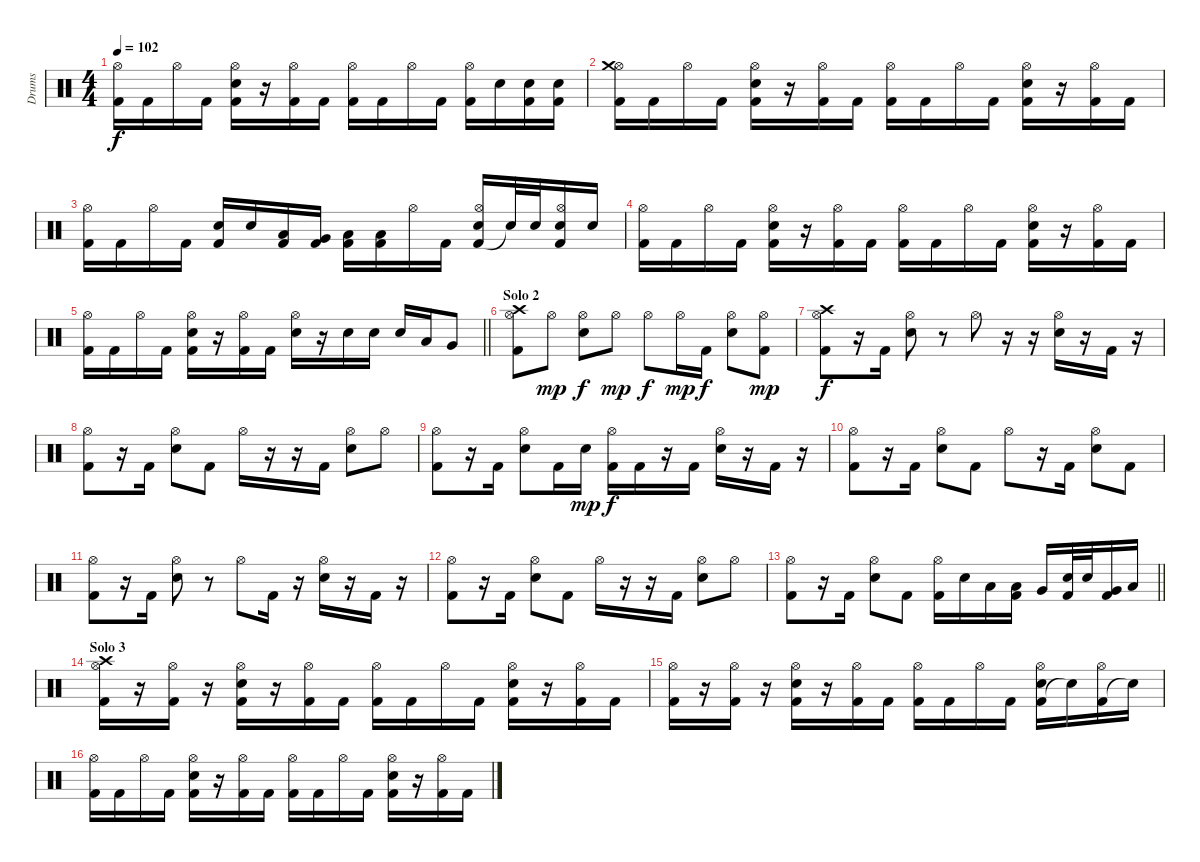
\track ("Drums" "Drums") {instrument percussion}
\staff {score}
\articulation defaults
\ts (4 4)
\tempo 102
\clef neutral
\ks c
("Kick (hit) 2" "Hi-Hat (open)").16{dy f} "Kick (hit) 2".16 "Hi-Hat (open)".16 "Kick (hit) 2".16 ("Kick (hit) 2" "Hi-Hat (open)" "Electric Snare (hit)").16 r.16 ("Kick (hit) 2" "Hi-Hat (open)").16 "Kick (hit) 2".16 ("Kick (hit) 2" "Hi-Hat (open)").16 "Kick (hit) 2".16 "Hi-Hat (open)".16 "Kick (hit) 2".16 ("Kick (hit) 2" "Hi-Hat (open)").16 "Electric Snare (hit)".16 ("Kick (hit) 2" "Electric Snare (hit)").16 ("Kick (hit) 2" "Electric Snare (hit)").16 |
("Kick (hit) 2" "Hi-Hat (open)" "Crash medium (hit)").16 "Kick (hit) 2".16 "Hi-Hat (open)".16 "Kick (hit) 2".16 ("Kick (hit) 2" "Hi-Hat (open)" "Electric Snare (hit)").16 r.16 ("Kick (hit) 2" "Hi-Hat (open)").16 "Kick (hit) 2".16 ("Kick (hit) 2" "Hi-Hat (open)").16 "Kick (hit) 2".16 "Hi-Hat (open)".16 "Kick (hit) 2".16 ("Kick (hit) 2" "Hi-Hat (open)" "Electric Snare (hit)").16 r.16 ("Kick (hit) 2" "Hi-Hat (open)").16 "Kick (hit) 2".16 |
("Kick (hit) 2" "Hi-Hat (open)").16 "Kick (hit) 2".16 "Hi-Hat (open)".16 "Kick (hit) 2".16 ("Kick (hit) 2" "Electric Snare (hit)").16 "Electric Snare (hit)".16 ("Kick (hit) 2" "Low Floor Tom (hit)").16 ("Kick (hit) 2" "Very Low Tom (hit)").16 ("Kick (hit) 2" "Low Tom (hit)").16 ("Kick (hit) 2" "Low Tom (hit)").16 "Hi-Hat (open)".16 "Kick (hit) 2".16 ("Kick (hit) 2" "Hi-Hat (open)" "Electric Snare (hit)").16 "Snare (hit)"{t}.32 "Electric Snare (hit)".32 ("Kick (hit) 2" "Hi-Hat (open)" "Electric Snare (hit)").16 "Electric Snare (hit)".16 |
("Kick (hit) 2" "Hi-Hat (open)").16 "Kick (hit) 2".16 "Hi-Hat (open)".16 "Kick (hit) 2".16 ("Kick (hit) 2" "Hi-Hat (open)" "Electric Snare (hit)").16 r.16 ("Kick (hit) 2" "Hi-Hat (open)").16 "Kick (hit) 2".16 ("Kick (hit) 2" "Hi-Hat (open)").16 "Kick (hit) 2".16 "Hi-Hat (open)".16 "Kick (hit) 2".16 ("Kick (hit) 2" "Hi-Hat (open)" "Electric Snare (hit)").16 r.16 ("Kick (hit) 2" "Hi-Hat (open)").16 "Kick (hit) 2".16 |
\barLineRight lightlight
("Kick (hit) 2" "Hi-Hat (open)").16 "Kick (hit) 2".16 "Hi-Hat (open)".16 "Kick (hit) 2".16 ("Kick (hit) 2" "Hi-Hat (open)" "Electric Snare (hit)").16 r.16 ("Kick (hit) 2" "Hi-Hat (open)").16 "Kick (hit) 2".16 ("Hi-Hat (open)" "Electric Snare (hit)").16 r.16 "Electric Snare (hit)".16 "Electric Snare (hit)".16 "Electric Snare (hit)".16 "Low Tom (hit)".16 "Very Low Tom (hit)".8 |
\section ("" "Solo 2")
("Kick (hit) 2" "Hi-Hat (open)" "Crash high (hit)").8 "Hi-Hat (open)".8{dy mp} ("Hi-Hat (open)" "Electric Snare (hit)").8{dy f} "Hi-Hat (open)".8{dy mp} "Hi-Hat (open)".8{dy f} "Hi-Hat (open)".16{dy mp} "Kick (hit) 2".16{dy f} ("Hi-Hat (open)" "Electric Snare (hit)").8 ("Kick (hit) 2" "Hi-Hat (open)").8{dy mp} |
("Kick (hit) 2" "Hi-Hat (open)" "Crash high (hit)").8{dy f} r.16 "Kick (hit) 2".16 ("Hi-Hat (open)" "Electric Snare (hit)").8 r.8 "Hi-Hat (open)".8 r.16 r.16 ("Hi-Hat (open)" "Electric Snare (hit)").16 r.16 "Kick (hit) 2".16 r.16 |
("Kick (hit) 2" "Hi-Hat (open)").8 r.16 "Kick (hit) 2".16 ("Hi-Hat (open)" "Electric Snare (hit)").8 "Kick (hit) 2".8 "Hi-Hat (open)".16 r.16 r.16 "Kick (hit) 2".16 ("Hi-Hat (open)" "Electric Snare (hit)").8 "Hi-Hat (open)".8 |
("Kick (hit) 2" "Hi-Hat (open)").8 r.16 "Kick (hit) 2".16 ("Hi-Hat (open)" "Electric Snare (hit)").8 "Kick (hit) 2".16 "Electric Snare (hit)".16{dy mp} ("Kick (hit) 2" "Hi-Hat (open)").16{dy f} "Kick (hit) 2".16 r.16 "Kick (hit) 2".16 ("Hi-Hat (open)" "Electric Snare (hit)").16 r.16 "Kick (hit) 2".16 r.16 |
("Kick (hit) 2" "Hi-Hat (open)").8 r.16 "Kick (hit) 2".16 ("Hi-Hat (open)" "Electric Snare (hit)").8 "Kick (hit) 2".8 "Hi-Hat (open)".8 r.16 "Kick (hit) 2".16 ("Hi-Hat (open)" "Electric Snare (hit)").8 "Kick (hit) 2".8 |
("Kick (hit) 2" "Hi-Hat (open)").8 r.16 "Kick (hit) 2".16 ("Hi-Hat (open)" "Electric Snare (hit)").8 r.8 "Hi-Hat (open)".8 "Kick (hit) 2".16 r.16 ("Hi-Hat (open)" "Electric Snare (hit)").16 r.16 "Kick (hit) 2".16 r.16 |
("Kick (hit) 2" "Hi-Hat (open)").8 r.16 "Kick (hit) 2".16 ("Hi-Hat (open)" "Electric Snare (hit)").8 "Kick (hit) 2".8 "Hi-Hat (open)".16 r.16 r.16 "Kick (hit) 2".16 ("Hi-Hat (open)" "Electric Snare (hit)").8 "Hi-Hat (open)".8 |
\barLineRight lightlight
("Kick (hit) 2" "Hi-Hat (open)").8 r.16 "Kick (hit) 2".16 ("Hi-Hat (open)" "Electric Snare (hit)").8 "Kick (hit) 2".8 ("Kick (hit) 2" "Hi-Hat (open)").16 "Electric Snare (hit)".16 "Low Tom (hit)".16 ("Kick (hit) 2" "Low Tom (hit)").16 "Very Low Tom (hit)".16 ("Kick (hit) 2" "Electric Snare (hit)").32 "Electric Snare (hit)".32 ("Kick (hit) 2" "Very Low Tom (hit)").16 "Low Tom (hit)".16 |
\section ("" "Solo 3")
("Kick (hit) 2" "Hi-Hat (open)" "Crash high (hit)").16 r.16 ("Kick (hit) 2" "Hi-Hat (open)").16 r.16 ("Kick (hit) 2" "Hi-Hat (open)" "Electric Snare (hit)").16 r.16 ("Kick (hit) 2" "Hi-Hat (open)").16 "Kick (hit) 2".16 ("Kick (hit) 2" "Hi-Hat (open)").16 "Kick (hit) 2".16 "Hi-Hat (open)".16 "Kick (hit) 2".16 ("Kick (hit) 2" "Hi-Hat (open)" "Electric Snare (hit)").16 r.16 ("Kick (hit) 2" "Hi-Hat (open)").16 "Kick (hit) 2".16 |
("Kick (hit) 2" "Hi-Hat (open)").16 r.16 ("Kick (hit) 2" "Hi-Hat (open)").16 r.16 ("Kick (hit) 2" "Hi-Hat (open)" "Electric Snare (hit)").16 r.16 ("Kick (hit) 2" "Hi-Hat (open)").16 "Kick (hit) 2".16 ("Kick (hit) 2" "Hi-Hat (open)").16 "Kick (hit) 2".16 "Hi-Hat (open)".16 "Kick (hit) 2".16 ("Kick (hit) 2" "Hi-Hat (open)" "Electric Snare (hit)").16 "Snare (hit)"{t}.16 ("Kick (hit) 2" "Hi-Hat (open)").16 "Snare (hit)"{t}.16 |
("Kick (hit) 2" "Hi-Hat (open)").16 "Kick (hit) 2".16 "Hi-Hat (open)".16 "Kick (hit) 2".16 ("Kick (hit) 2" "Hi-Hat (open)" "Electric Snare (hit)").16 r.16 ("Kick (hit) 2" "Hi-Hat (open)").16 "Kick (hit) 2".16 ("Kick (hit) 2" "Hi-Hat (open)").16 "Kick (hit) 2".16 "Hi-Hat (open)".16 "Kick (hit) 2".16 ("Kick (hit) 2" "Hi-Hat (open)" "Electric Snare (hit)").16 r.16 ("Kick (hit) 2" "Hi-Hat (open)").16 "Kick (hit) 2".16
